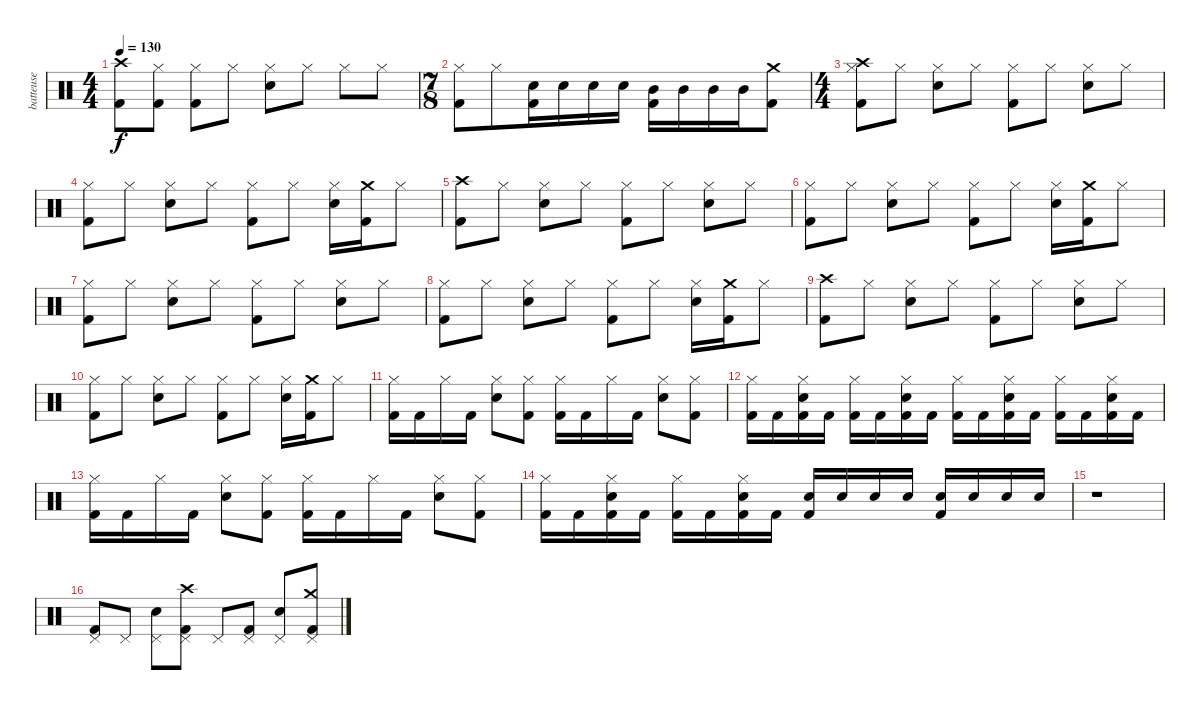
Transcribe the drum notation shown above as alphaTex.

\track ("batteuse" "batteuse") {instrument percussion}
\staff {score}
\articulation defaults
\ts (4 4)
\tempo 130
\clef neutral
\ks c
("Crash high (hit)" "Kick (hit) 2").8{dy f} ("Kick (hit) 2" "Hi-Hat (closed)").8 ("Kick (hit) 2" "Hi-Hat (closed)").8 "Hi-Hat (closed)".8 ("Snare (hit) 2" "Hi-Hat (closed)").8 "Hi-Hat (closed)".8 "Hi-Hat (closed)".8 "Hi-Hat (closed)".8 |
\ts (7 8)
("Kick (hit) 2" "Hi-Hat (closed)").8 "Hi-Hat (closed)".8 ("Snare (hit) 2" "Kick (hit) 2").16 "Snare (hit) 2".16 "Snare (hit) 2".16 "Snare (hit) 2".16 ("Mid Tom (hit)" "Kick (hit) 2").16 "Mid Tom (hit)".16 "Mid Tom (hit)".16 "Mid Tom (hit)".16 ("Crash medium (hit)" "Kick (hit) 2").8 |
\ts (4 4)
("Crash high (hit)" "Kick (hit) 2" "Hi-Hat (closed)").8 "Hi-Hat (closed)".8 ("Snare (hit) 2" "Hi-Hat (closed)").8 "Hi-Hat (closed)".8 ("Kick (hit) 2" "Hi-Hat (closed)").8 "Hi-Hat (closed)".8 ("Snare (hit) 2" "Hi-Hat (closed)").8 "Hi-Hat (closed)".8 |
("Kick (hit) 2" "Hi-Hat (closed)").8 "Hi-Hat (closed)".8 ("Snare (hit) 2" "Hi-Hat (closed)").8 "Hi-Hat (closed)".8 ("Kick (hit) 2" "Hi-Hat (closed)").8 "Hi-Hat (closed)".8 ("Snare (hit) 2" "Hi-Hat (closed)").16 ("Crash medium (hit)" "Kick (hit) 2").16 "Hi-Hat (closed)".8 |
("Crash high (hit)" "Kick (hit) 2").8 "Hi-Hat (closed)".8 ("Snare (hit) 2" "Hi-Hat (closed)").8 "Hi-Hat (closed)".8 ("Kick (hit) 2" "Hi-Hat (closed)").8 "Hi-Hat (closed)".8 ("Snare (hit) 2" "Hi-Hat (closed)").8 "Hi-Hat (closed)".8 |
("Kick (hit) 2" "Hi-Hat (closed)").8 "Hi-Hat (closed)".8 ("Snare (hit) 2" "Hi-Hat (closed)").8 "Hi-Hat (closed)".8 ("Kick (hit) 2" "Hi-Hat (closed)").8 "Hi-Hat (closed)".8 ("Snare (hit) 2" "Hi-Hat (closed)").16 ("Crash medium (hit)" "Kick (hit) 2").16 "Hi-Hat (closed)".8 |
("Kick (hit) 2" "Hi-Hat (closed)").8 "Hi-Hat (closed)".8 ("Snare (hit) 2" "Hi-Hat (closed)").8 "Hi-Hat (closed)".8 ("Kick (hit) 2" "Hi-Hat (closed)").8 "Hi-Hat (closed)".8 ("Snare (hit) 2" "Hi-Hat (closed)").8 "Hi-Hat (closed)".8 |
("Kick (hit) 2" "Hi-Hat (closed)").8 "Hi-Hat (closed)".8 ("Snare (hit) 2" "Hi-Hat (closed)").8 "Hi-Hat (closed)".8 ("Kick (hit) 2" "Hi-Hat (closed)").8 "Hi-Hat (closed)".8 ("Snare (hit) 2" "Hi-Hat (closed)").16 ("Crash medium (hit)" "Kick (hit) 2").16 "Hi-Hat (closed)".8 |
("Crash high (hit)" "Kick (hit) 2").8 "Hi-Hat (closed)".8 ("Snare (hit) 2" "Hi-Hat (closed)").8 "Hi-Hat (closed)".8 ("Kick (hit) 2" "Hi-Hat (closed)").8 "Hi-Hat (closed)".8 ("Snare (hit) 2" "Hi-Hat (closed)").8 "Hi-Hat (closed)".8 |
("Kick (hit) 2" "Hi-Hat (closed)").8 "Hi-Hat (closed)".8 ("Snare (hit) 2" "Hi-Hat (closed)").8 "Hi-Hat (closed)".8 ("Kick (hit) 2" "Hi-Hat (closed)").8 "Hi-Hat (closed)".8 ("Snare (hit) 2" "Hi-Hat (closed)").16 ("Crash medium (hit)" "Kick (hit) 2").16 "Hi-Hat (closed)".8 |
("Kick (hit) 2" "Hi-Hat (closed)").16 "Kick (hit) 2".16 "Hi-Hat (closed)".16 "Kick (hit) 2".16 ("Snare (hit) 2" "Hi-Hat (closed)").8 ("Kick (hit) 2" "Hi-Hat (closed)").8 ("Kick (hit) 2" "Hi-Hat (closed)").16 "Kick (hit) 2".16 "Hi-Hat (closed)".16 "Kick (hit) 2".16 ("Snare (hit) 2" "Hi-Hat (closed)").8 ("Kick (hit) 2" "Hi-Hat (closed)").8 |
("Kick (hit) 2" "Hi-Hat (closed)").16 "Kick (hit) 2".16 ("Snare (hit) 2" "Kick (hit) 2" "Hi-Hat (closed)").16 "Kick (hit) 2".16 ("Kick (hit) 2" "Hi-Hat (closed)").16 "Kick (hit) 2".16 ("Snare (hit) 2" "Kick (hit) 2" "Hi-Hat (closed)").16 "Kick (hit) 2".16 ("Kick (hit) 2" "Hi-Hat (closed)").16 "Kick (hit) 2".16 ("Snare (hit) 2" "Kick (hit) 2" "Hi-Hat (closed)").16 "Kick (hit) 2".16 ("Kick (hit) 2" "Hi-Hat (closed)").16 "Kick (hit) 2".16 ("Snare (hit) 2" "Kick (hit) 2" "Hi-Hat (closed)").16 "Kick (hit) 2".16 |
("Kick (hit) 2" "Hi-Hat (closed)").16 "Kick (hit) 2".16 "Hi-Hat (closed)".16 "Kick (hit) 2".16 ("Snare (hit) 2" "Hi-Hat (closed)").8 ("Kick (hit) 2" "Hi-Hat (closed)").8 ("Kick (hit) 2" "Hi-Hat (closed)").16 "Kick (hit) 2".16 "Hi-Hat (closed)".16 "Kick (hit) 2".16 ("Snare (hit) 2" "Hi-Hat (closed)").8 ("Kick (hit) 2" "Hi-Hat (closed)").8 |
("Kick (hit) 2" "Hi-Hat (closed)").16 "Kick (hit) 2".16 ("Snare (hit) 2" "Kick (hit) 2" "Hi-Hat (closed)").16 "Kick (hit) 2".16 ("Kick (hit) 2" "Hi-Hat (closed)").16 "Kick (hit) 2".16 ("Snare (hit) 2" "Kick (hit) 2" "Hi-Hat (closed)").16 "Kick (hit) 2".16 ("Snare (hit) 2" "Kick (hit) 2").16 "Snare (hit) 2".16 "Snare (hit) 2".16 "Snare (hit) 2".16 ("Snare (hit) 2" "Kick (hit) 2").16 "Snare (hit) 2".16 "Snare (hit) 2".16 "Snare (hit) 2".16 |
r.1 |
("Kick (hit) 2" "Pedal Hi-Hat (hit)").8 "Pedal Hi-Hat (hit)".8 ("Snare (hit) 2" "Pedal Hi-Hat (hit)").8 ("Crash high (hit)" "Kick (hit) 2" "Pedal Hi-Hat (hit)").8 "Pedal Hi-Hat (hit)".8 ("Kick (hit) 2" "Pedal Hi-Hat (hit)").8 ("Snare (hit) 2" "Pedal Hi-Hat (hit)").8 ("Crash medium (hit)" "Kick (hit) 2" "Pedal Hi-Hat (hit)").8
